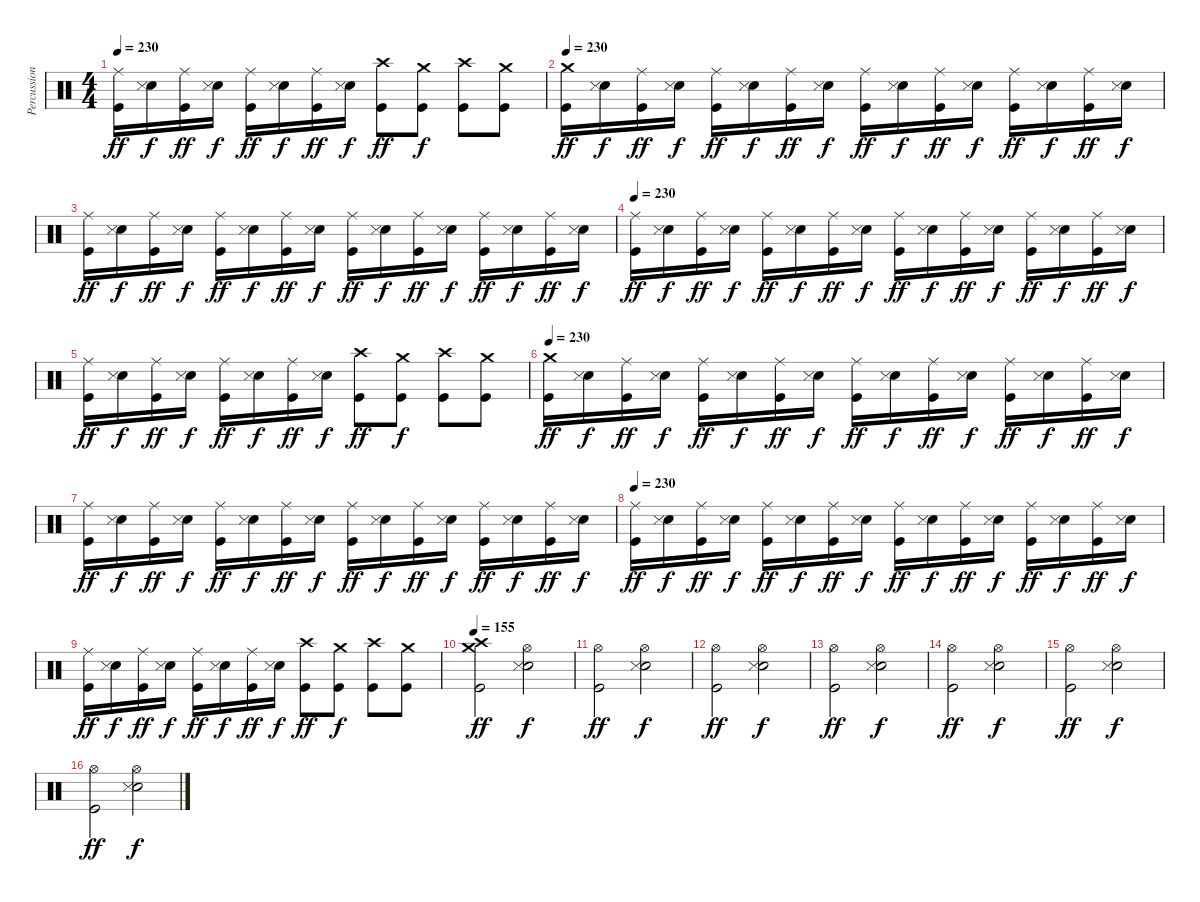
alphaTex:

\track ("Percussions" "Percussion") {instrument percussion}
\staff {score}
\articulation defaults
\ts (4 4)
\tempo 230
\clef neutral
\ks c
("Ride (middle)" "Kick (hit)").16{dy ff} ("Electric Snare (hit)" "Snare (side stick) 3").16{dy f} ("Ride (middle)" "Kick (hit)").16{dy ff} ("Electric Snare (hit)" "Snare (side stick) 3").16{dy f} ("Ride (middle)" "Kick (hit)").16{dy ff} ("Electric Snare (hit)" "Snare (side stick) 3").16{dy f} ("Ride (middle)" "Kick (hit)").16{dy ff} ("Electric Snare (hit)" "Snare (side stick) 3").16{dy f} ("Crash high (hit)" "Kick (hit)").8{dy ff} ("Crash medium (hit)" "Kick (hit)").8{dy f} ("Crash high (hit)" "Kick (hit)").8 ("Crash medium (hit)" "Kick (hit)").8 |
\tempo 230
("Crash medium (hit)" "Kick (hit)").16{dy ff} ("Electric Snare (hit)" "Snare (side stick) 3").16{dy f} ("Ride (middle)" "Kick (hit)").16{dy ff} ("Electric Snare (hit)" "Snare (side stick) 3").16{dy f} ("Ride (middle)" "Kick (hit)").16{dy ff} ("Electric Snare (hit)" "Snare (side stick) 3").16{dy f} ("Ride (middle)" "Kick (hit)").16{dy ff} ("Electric Snare (hit)" "Snare (side stick) 3").16{dy f} ("Ride (middle)" "Kick (hit)").16{dy ff} ("Electric Snare (hit)" "Snare (side stick) 3").16{dy f} ("Ride (middle)" "Kick (hit)").16{dy ff} ("Electric Snare (hit)" "Snare (side stick) 3").16{dy f} ("Ride (middle)" "Kick (hit)").16{dy ff} ("Electric Snare (hit)" "Snare (side stick) 3").16{dy f} ("Ride (middle)" "Kick (hit)").16{dy ff} ("Electric Snare (hit)" "Snare (side stick) 3").16{dy f} |
("Ride (middle)" "Kick (hit)").16{dy ff} ("Electric Snare (hit)" "Snare (side stick) 3").16{dy f} ("Ride (middle)" "Kick (hit)").16{dy ff} ("Electric Snare (hit)" "Snare (side stick) 3").16{dy f} ("Ride (middle)" "Kick (hit)").16{dy ff} ("Electric Snare (hit)" "Snare (side stick) 3").16{dy f} ("Ride (middle)" "Kick (hit)").16{dy ff} ("Electric Snare (hit)" "Snare (side stick) 3").16{dy f} ("Ride (middle)" "Kick (hit)").16{dy ff} ("Electric Snare (hit)" "Snare (side stick) 3").16{dy f} ("Ride (middle)" "Kick (hit)").16{dy ff} ("Electric Snare (hit)" "Snare (side stick) 3").16{dy f} ("Ride (middle)" "Kick (hit)").16{dy ff} ("Electric Snare (hit)" "Snare (side stick) 3").16{dy f} ("Ride (middle)" "Kick (hit)").16{dy ff} ("Electric Snare (hit)" "Snare (side stick) 3").16{dy f} |
\tempo 230
("Ride (middle)" "Kick (hit)").16{dy ff} ("Electric Snare (hit)" "Snare (side stick) 3").16{dy f} ("Ride (middle)" "Kick (hit)").16{dy ff} ("Electric Snare (hit)" "Snare (side stick) 3").16{dy f} ("Ride (middle)" "Kick (hit)").16{dy ff} ("Electric Snare (hit)" "Snare (side stick) 3").16{dy f} ("Ride (middle)" "Kick (hit)").16{dy ff} ("Electric Snare (hit)" "Snare (side stick) 3").16{dy f} ("Ride (middle)" "Kick (hit)").16{dy ff} ("Electric Snare (hit)" "Snare (side stick) 3").16{dy f} ("Ride (middle)" "Kick (hit)").16{dy ff} ("Electric Snare (hit)" "Snare (side stick) 3").16{dy f} ("Ride (middle)" "Kick (hit)").16{dy ff} ("Electric Snare (hit)" "Snare (side stick) 3").16{dy f} ("Ride (middle)" "Kick (hit)").16{dy ff} ("Electric Snare (hit)" "Snare (side stick) 3").16{dy f} |
("Ride (middle)" "Kick (hit)").16{dy ff} ("Electric Snare (hit)" "Snare (side stick) 3").16{dy f} ("Ride (middle)" "Kick (hit)").16{dy ff} ("Electric Snare (hit)" "Snare (side stick) 3").16{dy f} ("Ride (middle)" "Kick (hit)").16{dy ff} ("Electric Snare (hit)" "Snare (side stick) 3").16{dy f} ("Ride (middle)" "Kick (hit)").16{dy ff} ("Electric Snare (hit)" "Snare (side stick) 3").16{dy f} ("Crash high (hit)" "Kick (hit)").8{dy ff} ("Crash medium (hit)" "Kick (hit)").8{dy f} ("Crash high (hit)" "Kick (hit)").8 ("Crash medium (hit)" "Kick (hit)").8 |
\tempo 230
("Crash medium (hit)" "Kick (hit)").16{dy ff} ("Electric Snare (hit)" "Snare (side stick) 3").16{dy f} ("Ride (middle)" "Kick (hit)").16{dy ff} ("Electric Snare (hit)" "Snare (side stick) 3").16{dy f} ("Ride (middle)" "Kick (hit)").16{dy ff} ("Electric Snare (hit)" "Snare (side stick) 3").16{dy f} ("Ride (middle)" "Kick (hit)").16{dy ff} ("Electric Snare (hit)" "Snare (side stick) 3").16{dy f} ("Ride (middle)" "Kick (hit)").16{dy ff} ("Electric Snare (hit)" "Snare (side stick) 3").16{dy f} ("Ride (middle)" "Kick (hit)").16{dy ff} ("Electric Snare (hit)" "Snare (side stick) 3").16{dy f} ("Ride (middle)" "Kick (hit)").16{dy ff} ("Electric Snare (hit)" "Snare (side stick) 3").16{dy f} ("Ride (middle)" "Kick (hit)").16{dy ff} ("Electric Snare (hit)" "Snare (side stick) 3").16{dy f} |
("Ride (middle)" "Kick (hit)").16{dy ff} ("Electric Snare (hit)" "Snare (side stick) 3").16{dy f} ("Ride (middle)" "Kick (hit)").16{dy ff} ("Electric Snare (hit)" "Snare (side stick) 3").16{dy f} ("Ride (middle)" "Kick (hit)").16{dy ff} ("Electric Snare (hit)" "Snare (side stick) 3").16{dy f} ("Ride (middle)" "Kick (hit)").16{dy ff} ("Electric Snare (hit)" "Snare (side stick) 3").16{dy f} ("Ride (middle)" "Kick (hit)").16{dy ff} ("Electric Snare (hit)" "Snare (side stick) 3").16{dy f} ("Ride (middle)" "Kick (hit)").16{dy ff} ("Electric Snare (hit)" "Snare (side stick) 3").16{dy f} ("Ride (middle)" "Kick (hit)").16{dy ff} ("Electric Snare (hit)" "Snare (side stick) 3").16{dy f} ("Ride (middle)" "Kick (hit)").16{dy ff} ("Electric Snare (hit)" "Snare (side stick) 3").16{dy f} |
\tempo 230
("Ride (middle)" "Kick (hit)").16{dy ff} ("Electric Snare (hit)" "Snare (side stick) 3").16{dy f} ("Ride (middle)" "Kick (hit)").16{dy ff} ("Electric Snare (hit)" "Snare (side stick) 3").16{dy f} ("Ride (middle)" "Kick (hit)").16{dy ff} ("Electric Snare (hit)" "Snare (side stick) 3").16{dy f} ("Ride (middle)" "Kick (hit)").16{dy ff} ("Electric Snare (hit)" "Snare (side stick) 3").16{dy f} ("Ride (middle)" "Kick (hit)").16{dy ff} ("Electric Snare (hit)" "Snare (side stick) 3").16{dy f} ("Ride (middle)" "Kick (hit)").16{dy ff} ("Electric Snare (hit)" "Snare (side stick) 3").16{dy f} ("Ride (middle)" "Kick (hit)").16{dy ff} ("Electric Snare (hit)" "Snare (side stick) 3").16{dy f} ("Ride (middle)" "Kick (hit)").16{dy ff} ("Electric Snare (hit)" "Snare (side stick) 3").16{dy f} |
("Ride (middle)" "Kick (hit)").16{dy ff} ("Electric Snare (hit)" "Snare (side stick) 3").16{dy f} ("Ride (middle)" "Kick (hit)").16{dy ff} ("Electric Snare (hit)" "Snare (side stick) 3").16{dy f} ("Ride (middle)" "Kick (hit)").16{dy ff} ("Electric Snare (hit)" "Snare (side stick) 3").16{dy f} ("Ride (middle)" "Kick (hit)").16{dy ff} ("Electric Snare (hit)" "Snare (side stick) 3").16{dy f} ("Crash high (hit)" "Kick (hit)").8{dy ff} ("Crash medium (hit)" "Kick (hit)").8{dy f} ("Crash high (hit)" "Kick (hit)").8 ("Crash medium (hit)" "Kick (hit)").8 |
\tempo 155
("Crash high (hit)" "Crash medium (hit)" "Kick (hit)").2{dy ff} ("Hi-Hat (open)" "Electric Snare (hit)" "Snare (side stick) 3").2{dy f} |
("Hi-Hat (open)" "Kick (hit)").2{dy ff} ("Hi-Hat (open)" "Electric Snare (hit)" "Snare (side stick) 3").2{dy f} |
("Hi-Hat (open)" "Kick (hit)").2{dy ff} ("Hi-Hat (open)" "Electric Snare (hit)" "Snare (side stick) 3").2{dy f} |
("Hi-Hat (open)" "Kick (hit)").2{dy ff} ("Hi-Hat (open)" "Electric Snare (hit)" "Snare (side stick) 3").2{dy f} |
("Hi-Hat (open)" "Kick (hit)").2{dy ff} ("Hi-Hat (open)" "Electric Snare (hit)" "Snare (side stick) 3").2{dy f} |
("Hi-Hat (open)" "Kick (hit)").2{dy ff} ("Hi-Hat (open)" "Electric Snare (hit)" "Snare (side stick) 3").2{dy f} |
("Hi-Hat (open)" "Kick (hit)").2{dy ff} ("Hi-Hat (open)" "Electric Snare (hit)" "Snare (side stick) 3").2{dy f}
